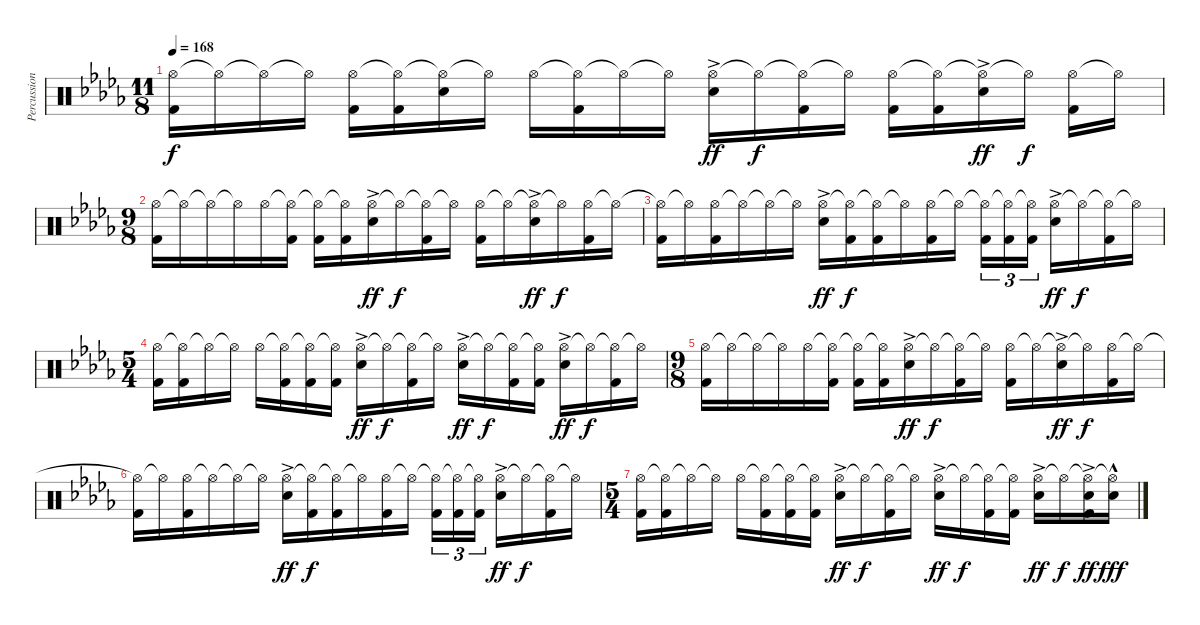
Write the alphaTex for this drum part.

\track ("Percussion" "Percussion") {instrument percussion}
\staff {score}
\articulation defaults
\ts (11 8)
\tempo 168
\clef neutral
\ks bbminor
("Hi-Hat (open)" "Kick (hit) 2").16{dy f} "Hi-Hat (open)"{t}.16 "Hi-Hat (open)"{t}.16 "Hi-Hat (open)"{t}.16 ("Hi-Hat (open)" "Kick (hit) 2").16 ("Hi-Hat (open)"{t} "Kick (hit) 2").16 ("Hi-Hat (open)"{t} "Snare (hit) 2").16 "Hi-Hat (open)"{t}.16 "Hi-Hat (open)".16 ("Hi-Hat (open)"{t} "Kick (hit) 2").16 "Hi-Hat (open)"{t}.16 "Hi-Hat (open)"{t}.16 ("Hi-Hat (open)" "Snare (hit) 2"{ac}).16{dy ff} "Hi-Hat (open)"{t}.16{dy f} ("Hi-Hat (open)"{t} "Kick (hit) 2").16 "Hi-Hat (open)"{t}.16 ("Hi-Hat (open)" "Kick (hit) 2").16 ("Hi-Hat (open)"{t} "Kick (hit) 2").16 ("Hi-Hat (open)"{t} "Snare (hit) 2"{ac}).16{dy ff} "Hi-Hat (open)"{t}.16{dy f} ("Hi-Hat (open)" "Kick (hit) 2").16 "Hi-Hat (open)"{t}.16 |
\ts (9 8)
("Hi-Hat (open)" "Kick (hit) 2").16 "Hi-Hat (open)"{t}.16 "Hi-Hat (open)"{t}.16 "Hi-Hat (open)"{t}.16 "Hi-Hat (open)".16 ("Hi-Hat (open)"{t} "Kick (hit) 2").16 ("Hi-Hat (open)"{t} "Kick (hit) 2").16 ("Hi-Hat (open)"{t} "Kick (hit) 2").16 ("Hi-Hat (open)" "Snare (hit) 2"{ac}).16{dy ff} "Hi-Hat (open)"{t}.16{dy f} ("Hi-Hat (open)"{t} "Kick (hit) 2").16 "Hi-Hat (open)"{t}.16 ("Hi-Hat (open)" "Kick (hit) 2").16 "Hi-Hat (open)"{t}.16 ("Hi-Hat (open)"{t} "Snare (hit) 2"{ac}).16{dy ff} "Hi-Hat (open)"{t}.16{dy f} ("Hi-Hat (open)" "Kick (hit) 2").16 "Hi-Hat (open)"{t}.16 |
("Hi-Hat (open)"{t} "Kick (hit) 2").16 "Hi-Hat (open)"{t}.16 ("Hi-Hat (open)" "Kick (hit) 2").16 "Hi-Hat (open)"{t}.16 "Hi-Hat (open)"{t}.16 "Hi-Hat (open)"{t}.16 ("Hi-Hat (open)" "Snare (hit) 2"{ac}).16{dy ff} ("Hi-Hat (open)"{t} "Kick (hit) 2").16{dy f} ("Hi-Hat (open)"{t} "Kick (hit) 2").16 "Hi-Hat (open)"{t}.16 ("Hi-Hat (open)" "Kick (hit) 2").16 "Hi-Hat (open)"{t}.16 ("Hi-Hat (open)"{t} "Kick (hit) 2").16{tu (3 2)} ("Hi-Hat (open)"{t} "Kick (hit) 2").16{tu (3 2)} ("Hi-Hat (open)"{t} "Kick (hit) 2").16{tu (3 2) beam splitsecondary} ("Hi-Hat (open)" "Snare (hit) 2"{ac}).16{dy ff} "Hi-Hat (open)"{t}.16{dy f} ("Hi-Hat (open)"{t} "Kick (hit) 2").16 "Hi-Hat (open)"{t}.16 |
\ts (5 4)
("Hi-Hat (open)" "Kick (hit) 2").16 ("Hi-Hat (open)"{t} "Kick (hit) 2").16 "Hi-Hat (open)"{t}.16 "Hi-Hat (open)"{t}.16 "Hi-Hat (open)".16 ("Hi-Hat (open)"{t} "Kick (hit) 2").16 ("Hi-Hat (open)"{t} "Kick (hit) 2").16 ("Hi-Hat (open)"{t} "Kick (hit) 2").16 ("Hi-Hat (open)" "Snare (hit) 2"{ac}).16{dy ff} "Hi-Hat (open)"{t}.16{dy f} ("Hi-Hat (open)"{t} "Kick (hit) 2").16 "Hi-Hat (open)"{t}.16 ("Hi-Hat (open)" "Snare (hit) 2"{ac}).16{dy ff} "Hi-Hat (open)"{t}.16{dy f} ("Hi-Hat (open)"{t} "Kick (hit) 2").16 ("Hi-Hat (open)"{t} "Kick (hit) 2").16 ("Hi-Hat (open)" "Snare (hit) 2"{ac}).16{dy ff} "Hi-Hat (open)"{t}.16{dy f} ("Hi-Hat (open)"{t} "Kick (hit) 2").16 "Hi-Hat (open)"{t}.16 |
\ts (9 8)
("Hi-Hat (open)" "Kick (hit) 2").16 "Hi-Hat (open)"{t}.16 "Hi-Hat (open)"{t}.16 "Hi-Hat (open)"{t}.16 "Hi-Hat (open)".16 ("Hi-Hat (open)"{t} "Kick (hit) 2").16 ("Hi-Hat (open)"{t} "Kick (hit) 2").16 ("Hi-Hat (open)"{t} "Kick (hit) 2").16 ("Hi-Hat (open)" "Snare (hit) 2"{ac}).16{dy ff} "Hi-Hat (open)"{t}.16{dy f} ("Hi-Hat (open)"{t} "Kick (hit) 2").16 "Hi-Hat (open)"{t}.16 ("Hi-Hat (open)" "Kick (hit) 2").16 "Hi-Hat (open)"{t}.16 ("Hi-Hat (open)"{t} "Snare (hit) 2"{ac}).16{dy ff} "Hi-Hat (open)"{t}.16{dy f} ("Hi-Hat (open)" "Kick (hit) 2").16 "Hi-Hat (open)"{t}.16 |
("Hi-Hat (open)"{t} "Kick (hit) 2").16 "Hi-Hat (open)"{t}.16 ("Hi-Hat (open)" "Kick (hit) 2").16 "Hi-Hat (open)"{t}.16 "Hi-Hat (open)"{t}.16 "Hi-Hat (open)"{t}.16 ("Hi-Hat (open)" "Snare (hit) 2"{ac}).16{dy ff} ("Hi-Hat (open)"{t} "Kick (hit) 2").16{dy f} ("Hi-Hat (open)"{t} "Kick (hit) 2").16 "Hi-Hat (open)"{t}.16 ("Hi-Hat (open)" "Kick (hit) 2").16 "Hi-Hat (open)"{t}.16 ("Hi-Hat (open)"{t} "Kick (hit) 2").16{tu (3 2)} ("Hi-Hat (open)"{t} "Kick (hit) 2").16{tu (3 2)} ("Hi-Hat (open)"{t} "Kick (hit) 2").16{tu (3 2) beam splitsecondary} ("Hi-Hat (open)" "Snare (hit) 2"{ac}).16{dy ff} "Hi-Hat (open)"{t}.16{dy f} ("Hi-Hat (open)"{t} "Kick (hit) 2").16 "Hi-Hat (open)"{t}.16 |
\ts (5 4)
("Hi-Hat (open)" "Kick (hit) 2").16 ("Hi-Hat (open)"{t} "Kick (hit) 2").16 "Hi-Hat (open)"{t}.16 "Hi-Hat (open)"{t}.16 "Hi-Hat (open)".16 ("Hi-Hat (open)"{t} "Kick (hit) 2").16 ("Hi-Hat (open)"{t} "Kick (hit) 2").16 ("Hi-Hat (open)"{t} "Kick (hit) 2").16 ("Hi-Hat (open)" "Snare (hit) 2"{ac}).16{dy ff} "Hi-Hat (open)"{t}.16{dy f} ("Hi-Hat (open)"{t} "Kick (hit) 2").16 "Hi-Hat (open)"{t}.16 ("Hi-Hat (open)" "Snare (hit) 2"{ac}).16{dy ff} "Hi-Hat (open)"{t}.16{dy f} ("Hi-Hat (open)"{t} "Kick (hit) 2").16 ("Hi-Hat (open)"{t} "Kick (hit) 2").16 ("Hi-Hat (open)" "Snare (hit) 2"{ac}).16{dy ff} "Hi-Hat (open)"{t}.16{dy f} ("Hi-Hat (open)"{t} "Snare (hit) 2"{ac} "Kick (hit) 2").16{dy ff} ("Hi-Hat (open)"{t} "Snare (hit) 2"{hac}).16{dy fff}
